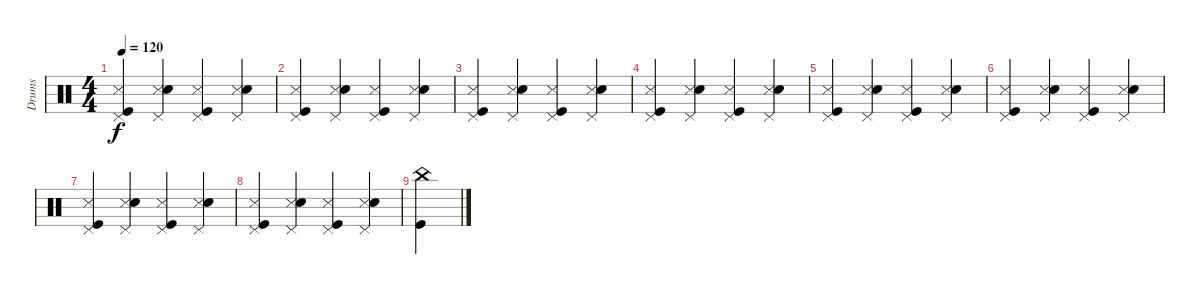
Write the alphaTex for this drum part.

\track ("Drums" "Drums") {instrument percussion}
\staff {score}
\articulation defaults
\ts (4 4)
\tempo 120
\clef neutral
\ks c
("Pedal Hi-Hat (hit)" "Kick (hit)" "Snare (side stick) 3").4{dy f} ("Snare (side stick) 3" "Pedal Hi-Hat (hit)" "Snare (hit) 2").4 ("Pedal Hi-Hat (hit)" "Snare (side stick) 3" "Kick (hit)").4 ("Pedal Hi-Hat (hit)" "Snare (side stick) 3" "Snare (hit) 2").4 |
("Pedal Hi-Hat (hit)" "Kick (hit)" "Snare (side stick) 3").4 ("Snare (side stick) 3" "Pedal Hi-Hat (hit)" "Snare (hit) 2").4 ("Pedal Hi-Hat (hit)" "Snare (side stick) 3" "Kick (hit)").4 ("Pedal Hi-Hat (hit)" "Snare (side stick) 3" "Snare (hit) 2").4 |
("Pedal Hi-Hat (hit)" "Kick (hit)" "Snare (side stick) 3").4 ("Snare (side stick) 3" "Pedal Hi-Hat (hit)" "Snare (hit) 2").4 ("Pedal Hi-Hat (hit)" "Snare (side stick) 3" "Kick (hit)").4 ("Pedal Hi-Hat (hit)" "Snare (side stick) 3" "Snare (hit) 2").4 |
("Pedal Hi-Hat (hit)" "Kick (hit)" "Snare (side stick) 3").4 ("Snare (side stick) 3" "Pedal Hi-Hat (hit)" "Snare (hit) 2").4 ("Pedal Hi-Hat (hit)" "Snare (side stick) 3" "Kick (hit)").4 ("Pedal Hi-Hat (hit)" "Snare (side stick) 3" "Snare (hit) 2").4 |
("Pedal Hi-Hat (hit)" "Kick (hit)" "Snare (side stick) 3").4 ("Snare (side stick) 3" "Pedal Hi-Hat (hit)" "Snare (hit) 2").4 ("Pedal Hi-Hat (hit)" "Snare (side stick) 3" "Kick (hit)").4 ("Pedal Hi-Hat (hit)" "Snare (side stick) 3" "Snare (hit) 2").4 |
("Pedal Hi-Hat (hit)" "Kick (hit)" "Snare (side stick) 3").4 ("Snare (side stick) 3" "Pedal Hi-Hat (hit)" "Snare (hit) 2").4 ("Pedal Hi-Hat (hit)" "Snare (side stick) 3" "Kick (hit)").4 ("Pedal Hi-Hat (hit)" "Snare (side stick) 3" "Snare (hit) 2").4 |
("Pedal Hi-Hat (hit)" "Kick (hit)" "Snare (side stick) 3").4 ("Snare (side stick) 3" "Pedal Hi-Hat (hit)" "Snare (hit) 2").4 ("Pedal Hi-Hat (hit)" "Snare (side stick) 3" "Kick (hit)").4 ("Pedal Hi-Hat (hit)" "Snare (side stick) 3" "Snare (hit) 2").4 |
("Pedal Hi-Hat (hit)" "Kick (hit)" "Snare (side stick) 3").4 ("Snare (side stick) 3" "Pedal Hi-Hat (hit)" "Snare (hit) 2").4 ("Pedal Hi-Hat (hit)" "Snare (side stick) 3" "Kick (hit)").4 ("Pedal Hi-Hat (hit)" "Snare (side stick) 3" "Snare (hit) 2").4 |
("Kick (hit)" "China (hit)").4
